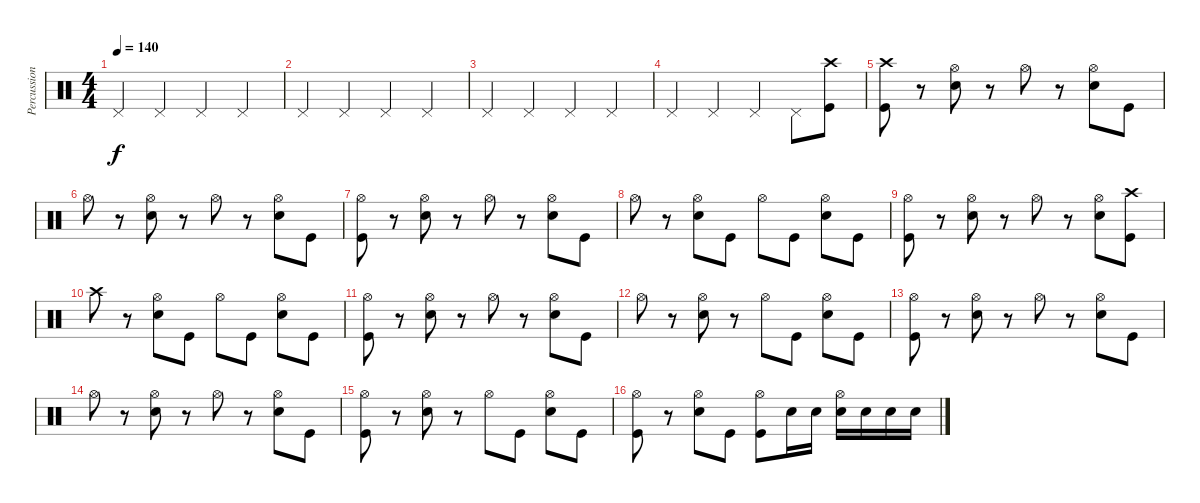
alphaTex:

\track ("Percussion" "Percussion") {instrument percussion}
\staff {score}
\articulation defaults
\ts (4 4)
\tempo 140
\clef neutral
\ks c "Pedal Hi-Hat (hit)".4{dy f} "Pedal Hi-Hat (hit)".4 "Pedal Hi-Hat (hit)".4 "Pedal Hi-Hat (hit)".4
|
"Pedal Hi-Hat (hit)".4 "Pedal Hi-Hat (hit)".4 "Pedal Hi-Hat (hit)".4 "Pedal Hi-Hat (hit)".4 |
"Pedal Hi-Hat (hit)".4 "Pedal Hi-Hat (hit)".4 "Pedal Hi-Hat (hit)".4 "Pedal Hi-Hat (hit)".4 |
"Pedal Hi-Hat (hit)".4 "Pedal Hi-Hat (hit)".4 "Pedal Hi-Hat (hit)".4 "Pedal Hi-Hat (hit)".8 ("Crash high (hit)" "Kick (hit)").8 |
("Crash high (hit)" "Kick (hit)").8 r.8 ("Hi-Hat (open)" "Snare (hit) 2").8 r.8 "Hi-Hat (open)".8 r.8 ("Hi-Hat (open)" "Snare (hit) 2").8 "Kick (hit)".8 |
"Hi-Hat (open)".8 r.8 ("Hi-Hat (open)" "Snare (hit) 2").8 r.8 "Hi-Hat (open)".8 r.8 ("Hi-Hat (open)" "Snare (hit) 2").8 "Kick (hit)".8 |
("Hi-Hat (open)" "Kick (hit)").8 r.8 ("Hi-Hat (open)" "Snare (hit) 2").8 r.8 "Hi-Hat (open)".8 r.8 ("Hi-Hat (open)" "Snare (hit) 2").8 "Kick (hit)".8 |
"Hi-Hat (open)".8 r.8 ("Hi-Hat (open)" "Snare (hit) 2").8 "Kick (hit)".8 "Hi-Hat (open)".8 "Kick (hit)".8 ("Hi-Hat (open)" "Snare (hit) 2").8 "Kick (hit)".8 |
("Hi-Hat (open)" "Kick (hit)").8 r.8 ("Hi-Hat (open)" "Snare (hit) 2").8 r.8 "Hi-Hat (open)".8 r.8 ("Hi-Hat (open)" "Snare (hit) 2").8 ("Crash high (hit)" "Kick (hit)").8 |
"Crash high (hit)".8 r.8 ("Hi-Hat (open)" "Snare (hit) 2").8 "Kick (hit)".8 "Hi-Hat (open)".8 "Kick (hit)".8 ("Hi-Hat (open)" "Snare (hit) 2").8 "Kick (hit)".8 |
("Hi-Hat (open)" "Kick (hit)").8 r.8 ("Hi-Hat (open)" "Snare (hit) 2").8 r.8 "Hi-Hat (open)".8 r.8 ("Hi-Hat (open)" "Snare (hit) 2").8 "Kick (hit)".8 |
"Hi-Hat (open)".8 r.8 ("Hi-Hat (open)" "Snare (hit) 2").8 r.8 "Hi-Hat (open)".8 "Kick (hit)".8 ("Hi-Hat (open)" "Snare (hit) 2").8 "Kick (hit)".8 |
("Hi-Hat (open)" "Kick (hit)").8 r.8 ("Hi-Hat (open)" "Snare (hit) 2").8 r.8 "Hi-Hat (open)".8 r.8 ("Hi-Hat (open)" "Snare (hit) 2").8 "Kick (hit)".8 |
"Hi-Hat (open)".8 r.8 ("Hi-Hat (open)" "Snare (hit) 2").8 r.8 "Hi-Hat (open)".8 r.8 ("Hi-Hat (open)" "Snare (hit) 2").8 "Kick (hit)".8 |
("Hi-Hat (open)" "Kick (hit)").8 r.8 ("Hi-Hat (open)" "Snare (hit) 2").8 r.8 "Hi-Hat (open)".8 "Kick (hit)".8 ("Hi-Hat (open)" "Snare (hit) 2").8 "Kick (hit)".8 |
("Hi-Hat (open)" "Kick (hit)").8 r.8 ("Hi-Hat (open)" "Snare (hit) 2").8 "Kick (hit)".8 ("Hi-Hat (open)" "Kick (hit)").8 "Snare (hit) 2".16 "Snare (hit) 2".16 ("Hi-Hat (open)" "Snare (hit) 2").16 "Snare (hit) 2".16 "Snare (hit) 2".16 "Snare (hit) 2".16
